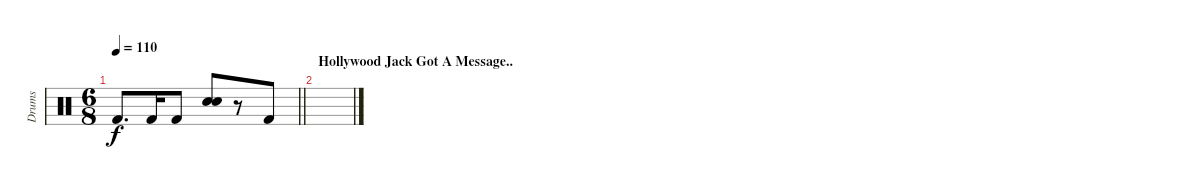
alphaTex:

\track ("Drums" "Drums") {instrument percussion}
\staff {score}
\articulation defaults
\ts (6 8)
\tempo 110
\clef neutral
\barLineRight lightlight
\ks c "Kick (hit) 2".8{d dy f} "Kick (hit) 2".16 "Kick (hit) 2".8
("Hand Clap (hit)" "Snare (hit) 2").8 r.8 "Kick (hit) 2".8 |
\section ("" "Hollywood Jack Got A Message..")
